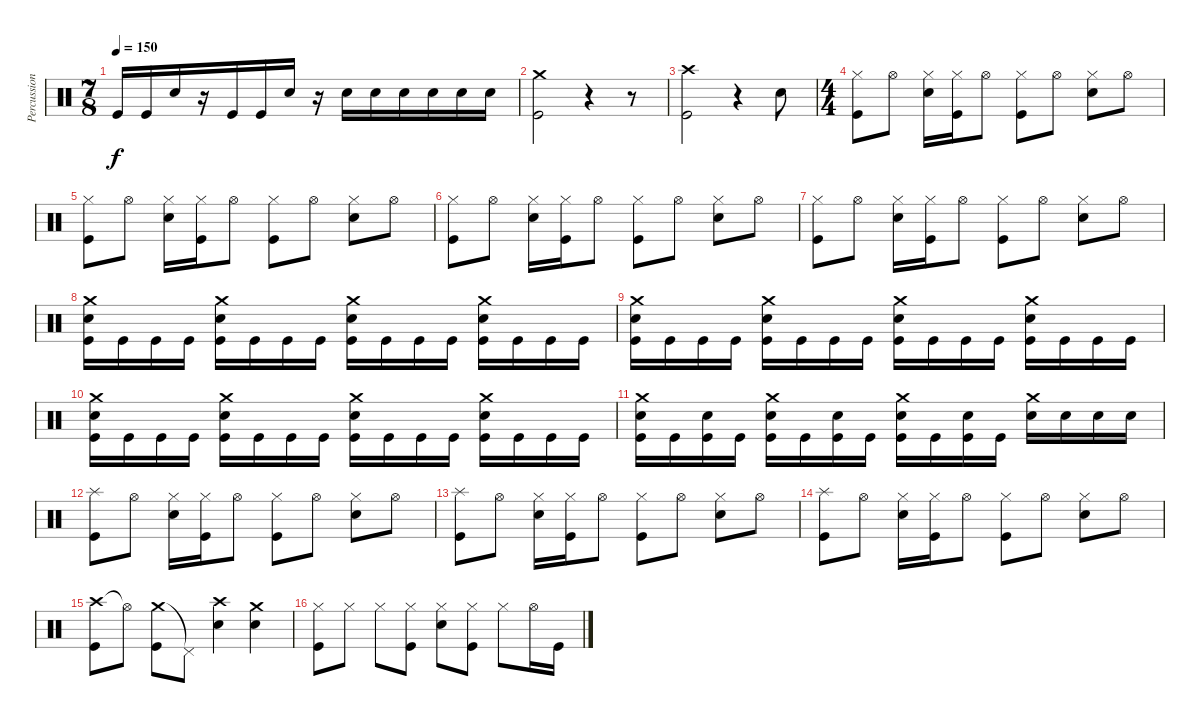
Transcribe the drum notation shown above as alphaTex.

\track ("Percussion" "Percussion") {instrument percussion}
\staff {score}
\articulation defaults
\ts (7 8)
\tempo 150
\clef neutral
\ks c "Kick (hit)".16{dy f} "Kick (hit)".16 "Snare (hit) 2".16
r.16 "Kick (hit)".16 "Kick (hit)".16 "Snare (hit) 2".16 r.16 "Snare (hit) 2".16 "Snare (hit) 2".16 "Snare (hit) 2".16 "Snare (hit) 2".16 "Snare (hit) 2".16 "Snare (hit) 2".16 |
("Crash medium (hit)" "Kick (hit)").2 r.4 r.8 |
("Crash high (hit)" "Kick (hit)").2 r.4 "Snare (hit) 2".8 |
\ts (4 4)
("Hi-Hat (closed)" "Kick (hit)").8 "Hi-Hat (open)".8 ("Hi-Hat (closed)" "Snare (hit) 2").16 ("Hi-Hat (closed)" "Kick (hit)").16 "Hi-Hat (open)".8 ("Hi-Hat (closed)" "Kick (hit)").8 "Hi-Hat (open)".8 ("Hi-Hat (closed)" "Snare (hit) 2").8 "Hi-Hat (open)".8 |
("Hi-Hat (closed)" "Kick (hit)").8 "Hi-Hat (open)".8 ("Hi-Hat (closed)" "Snare (hit) 2").16 ("Hi-Hat (closed)" "Kick (hit)").16 "Hi-Hat (open)".8 ("Hi-Hat (closed)" "Kick (hit)").8 "Hi-Hat (open)".8 ("Hi-Hat (closed)" "Snare (hit) 2").8 "Hi-Hat (open)".8 |
("Hi-Hat (closed)" "Kick (hit)").8 "Hi-Hat (open)".8 ("Hi-Hat (closed)" "Snare (hit) 2").16 ("Hi-Hat (closed)" "Kick (hit)").16 "Hi-Hat (open)".8 ("Hi-Hat (closed)" "Kick (hit)").8 "Hi-Hat (open)".8 ("Hi-Hat (closed)" "Snare (hit) 2").8 "Hi-Hat (open)".8 |
("Hi-Hat (closed)" "Kick (hit)").8 "Hi-Hat (open)".8 ("Hi-Hat (closed)" "Snare (hit) 2").16 ("Hi-Hat (closed)" "Kick (hit)").16 "Hi-Hat (open)".8 ("Hi-Hat (closed)" "Kick (hit)").8 "Hi-Hat (open)".8 ("Hi-Hat (closed)" "Snare (hit) 2").8 "Hi-Hat (open)".8 |
("Crash medium (hit)" "Snare (hit) 2" "Kick (hit)").16 "Kick (hit)".16 "Kick (hit)".16 "Kick (hit)".16 ("Crash medium (hit)" "Snare (hit) 2" "Kick (hit)").16 "Kick (hit)".16 "Kick (hit)".16 "Kick (hit)".16 ("Crash medium (hit)" "Snare (hit) 2" "Kick (hit)").16 "Kick (hit)".16 "Kick (hit)".16 "Kick (hit)".16 ("Crash medium (hit)" "Snare (hit) 2" "Kick (hit)").16 "Kick (hit)".16 "Kick (hit)".16 "Kick (hit)".16 |
("Crash medium (hit)" "Snare (hit) 2" "Kick (hit)").16 "Kick (hit)".16 "Kick (hit)".16 "Kick (hit)".16 ("Crash medium (hit)" "Snare (hit) 2" "Kick (hit)").16 "Kick (hit)".16 "Kick (hit)".16 "Kick (hit)".16 ("Crash medium (hit)" "Snare (hit) 2" "Kick (hit)").16 "Kick (hit)".16 "Kick (hit)".16 "Kick (hit)".16 ("Crash medium (hit)" "Snare (hit) 2" "Kick (hit)").16 "Kick (hit)".16 "Kick (hit)".16 "Kick (hit)".16 |
("Crash medium (hit)" "Snare (hit) 2" "Kick (hit)").16 "Kick (hit)".16 "Kick (hit)".16 "Kick (hit)".16 ("Crash medium (hit)" "Snare (hit) 2" "Kick (hit)").16 "Kick (hit)".16 "Kick (hit)".16 "Kick (hit)".16 ("Crash medium (hit)" "Snare (hit) 2" "Kick (hit)").16 "Kick (hit)".16 "Kick (hit)".16 "Kick (hit)".16 ("Crash medium (hit)" "Snare (hit) 2" "Kick (hit)").16 "Kick (hit)".16 "Kick (hit)".16 "Kick (hit)".16 |
("Crash medium (hit)" "Snare (hit) 2" "Kick (hit)").16 "Kick (hit)".16 ("Snare (hit) 2" "Kick (hit)").16 "Kick (hit)".16 ("Crash medium (hit)" "Snare (hit) 2" "Kick (hit)").16 "Kick (hit)".16 ("Snare (hit) 2" "Kick (hit)").16 "Kick (hit)".16 ("Crash medium (hit)" "Snare (hit) 2" "Kick (hit)").16 "Kick (hit)".16 ("Snare (hit) 2" "Kick (hit)").16 "Kick (hit)".16 ("Crash medium (hit)" "Snare (hit) 2").16 "Snare (hit) 2".16 "Snare (hit) 2".16 "Snare (hit) 2".16 |
("Splash (hit)" "Kick (hit)").8 "Hi-Hat (open)".8 ("Hi-Hat (closed)" "Snare (hit) 2").16 ("Hi-Hat (closed)" "Kick (hit)").16 "Hi-Hat (open)".8 ("Hi-Hat (closed)" "Kick (hit)").8 "Hi-Hat (open)".8 ("Hi-Hat (closed)" "Snare (hit) 2").8 "Hi-Hat (open)".8 |
("Splash (hit)" "Kick (hit)").8 "Hi-Hat (open)".8 ("Hi-Hat (closed)" "Snare (hit) 2").16 ("Hi-Hat (closed)" "Kick (hit)").16 "Hi-Hat (open)".8 ("Hi-Hat (closed)" "Kick (hit)").8 "Hi-Hat (open)".8 ("Hi-Hat (closed)" "Snare (hit) 2").8 "Hi-Hat (open)".8 |
("Splash (hit)" "Kick (hit)").8 "Hi-Hat (open)".8 ("Hi-Hat (closed)" "Snare (hit) 2").16 ("Hi-Hat (closed)" "Kick (hit)").16 "Hi-Hat (open)".8 ("Hi-Hat (closed)" "Kick (hit)").8 "Hi-Hat (open)".8 ("Hi-Hat (closed)" "Snare (hit) 2").8 "Hi-Hat (open)".8 |
("Crash high (hit)" "Kick (hit)").8 "Hi-Hat (open)"{t}.8 ("Crash medium (hit)" "Kick (hit)").8 "Pedal Hi-Hat (hit)"{t}.8 ("Crash high (hit)" "Snare (hit) 2").4 ("Crash medium (hit)" "Snare (hit) 2").4 |
("Hi-Hat (closed)" "Kick (hit)").8 "Hi-Hat (closed)".8 "Hi-Hat (closed)".8 ("Hi-Hat (closed)" "Kick (hit)").8 ("Hi-Hat (closed)" "Snare (hit) 2").8 ("Hi-Hat (closed)" "Kick (hit)").8 "Hi-Hat (closed)".8 "Hi-Hat (open)".16 "Kick (hit)".16
